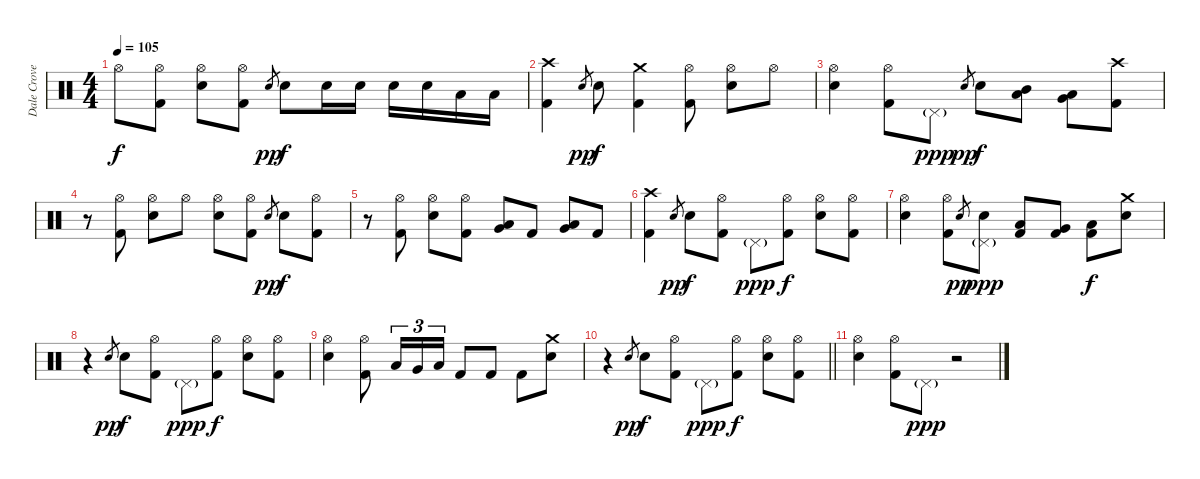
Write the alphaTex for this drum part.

\track ("Dale Crover" "Dale Crove") {instrument percussion}
\staff {score}
\articulation defaults
\ts (4 4)
\tempo 105
\clef neutral
\ks c "Hi-Hat (open)".8{dy f}
("Hi-Hat (open)" "Kick (hit) 2").8 ("Hi-Hat (open)" "Electric Snare (hit)").8 ("Hi-Hat (open)" "Kick (hit) 2").8 "Electric Snare (hit)".8{gr dy pp} "Electric Snare (hit)".8{dy f} "Electric Snare (hit)".16 "Electric Snare (hit)".16 "Electric Snare (hit)".16 "Electric Snare (hit)".16 "Low Tom (hit)".16 "Low Tom (hit)".16 |
("Crash high (hit)" "Kick (hit) 2").4 "Electric Snare (hit)".8{gr dy pp} "Electric Snare (hit)".8{dy f} ("Crash medium (hit)" "Kick (hit) 2").4 ("Hi-Hat (open)" "Kick (hit) 2").8 ("Hi-Hat (open)" "Electric Snare (hit)").8 "Hi-Hat (open)".8 |
("Hi-Hat (open)" "Electric Snare (hit)").4 ("Hi-Hat (open)" "Kick (hit) 2").8 "Pedal Hi-Hat (hit)"{g}.8{dy ppp} "Electric Snare (hit)".8{gr dy pp} "Electric Snare (hit)".8{dy f} ("Mid Tom (hit)" "Low Tom (hit)").8 ("Low Tom (hit)" "Very Low Tom (hit)").8 ("Crash high (hit)" "Kick (hit) 2").8 |
r.8 ("Hi-Hat (open)" "Kick (hit) 2").8 ("Hi-Hat (open)" "Electric Snare (hit)").8 "Hi-Hat (open)".8 ("Hi-Hat (open)" "Electric Snare (hit)").8 ("Hi-Hat (open)" "Kick (hit) 2").8 "Electric Snare (hit)".8{gr dy pp} "Electric Snare (hit)".8{dy f} ("Hi-Hat (open)" "Kick (hit) 2").8 |
r.8 ("Hi-Hat (open)" "Kick (hit) 2").8 ("Hi-Hat (open)" "Electric Snare (hit)").8 ("Hi-Hat (open)" "Kick (hit) 2").8 ("Low Tom (hit)" "Very Low Tom (hit)").8 "Kick (hit) 2".8 ("Very Low Tom (hit)" "Low Floor Tom (hit)").8 "Kick (hit) 2".8 |
("Crash high (hit)" "Kick (hit) 2").4 "Electric Snare (hit)".8{gr dy pp} "Electric Snare (hit)".8{dy f} ("Hi-Hat (open)" "Kick (hit) 2").8 "Pedal Hi-Hat (hit)"{g}.8{dy ppp} ("Hi-Hat (open)" "Kick (hit) 2").8{dy f} ("Hi-Hat (open)" "Electric Snare (hit)").8 ("Hi-Hat (open)" "Kick (hit) 2").8 |
("Hi-Hat (open)" "Electric Snare (hit)").4 ("Hi-Hat (open)" "Kick (hit) 2").8 "Electric Snare (hit)".8{gr dy pp} ("Pedal Hi-Hat (hit)"{g} "Electric Snare (hit)").8{dy ppp} ("Low Tom (hit)" "Kick (hit) 2").8 ("Very Low Tom (hit)" "Kick (hit) 2").8 ("Low Floor Tom (hit)" "Kick (hit) 2").8{dy f} ("Crash medium (hit)" "Electric Snare (hit)").8 |
r.4 "Electric Snare (hit)".8{gr dy pp} "Electric Snare (hit)".8{dy f} ("Hi-Hat (open)" "Kick (hit) 2").8 "Pedal Hi-Hat (hit)"{g}.8{dy ppp} ("Hi-Hat (open)" "Kick (hit) 2").8{dy f} ("Hi-Hat (open)" "Electric Snare (hit)").8 ("Hi-Hat (open)" "Kick (hit) 2").8 |
("Hi-Hat (open)" "Electric Snare (hit)").4 ("Hi-Hat (open)" "Kick (hit) 2").8 "Low Tom (hit)".16{tu (3 2)} "Very Low Tom (hit)".16{tu (3 2)} "Low Floor Tom (hit)".16{tu (3 2)} "Kick (hit) 2".8 "Kick (hit) 2".8 "Kick (hit) 2".8 ("Crash medium (hit)" "Electric Snare (hit)").8 |
\barLineRight lightlight
r.4 "Electric Snare (hit)".8{gr dy pp} "Electric Snare (hit)".8{dy f} ("Hi-Hat (open)" "Kick (hit) 2").8 "Pedal Hi-Hat (hit)"{g}.8{dy ppp} ("Hi-Hat (open)" "Kick (hit) 2").8{dy f} ("Hi-Hat (open)" "Electric Snare (hit)").8 ("Hi-Hat (open)" "Kick (hit) 2").8 |
("Hi-Hat (open)" "Electric Snare (hit)").4 ("Hi-Hat (open)" "Kick (hit) 2").8 "Pedal Hi-Hat (hit)"{g}.8{dy ppp} r.2
